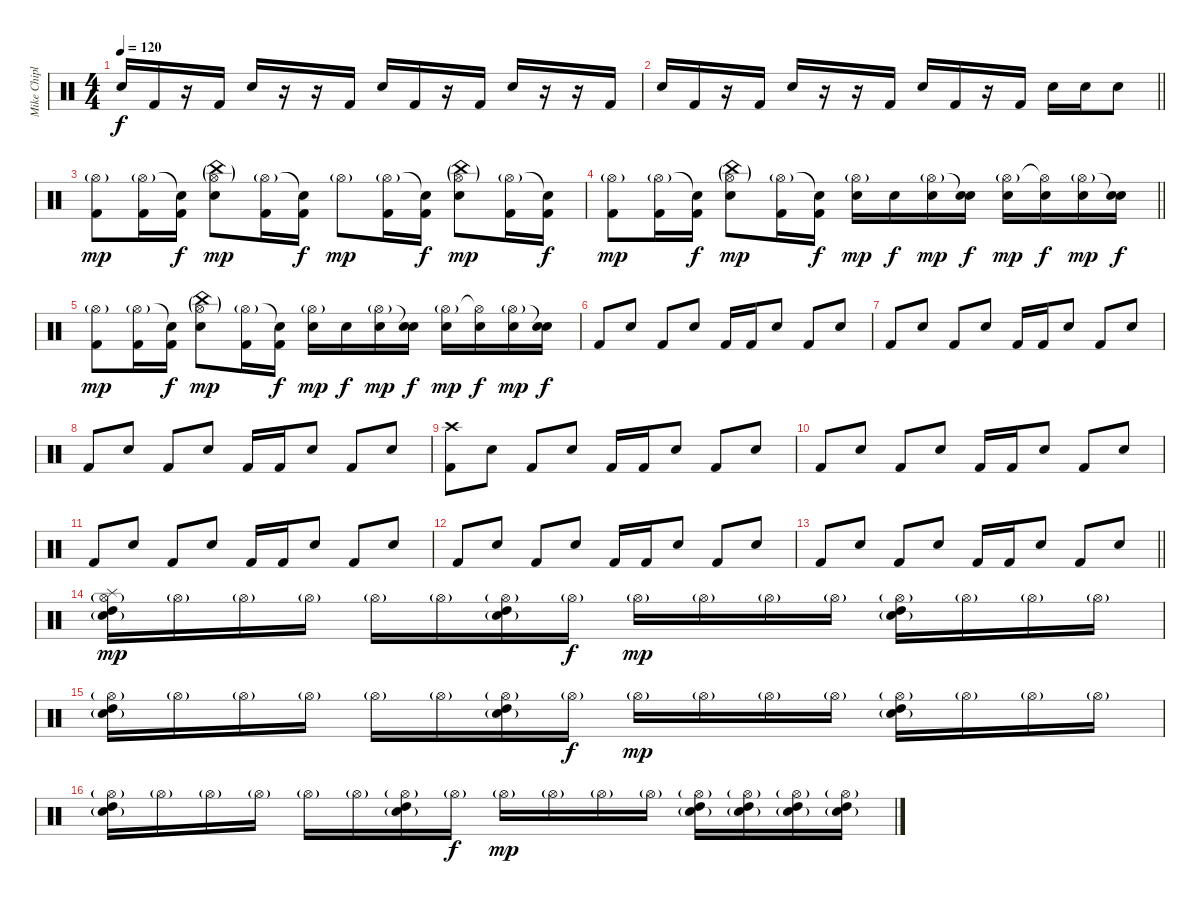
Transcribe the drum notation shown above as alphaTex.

\track ("Mike Chiplin" "Mike Chipl") {instrument percussion}
\staff {score}
\articulation defaults
\ts (4 4)
\tempo 120
\clef neutral
\ks c "Electric Snare (hit)".16{dy f} "Kick (hit) 2".16
r.16 "Kick (hit) 2".16 "Electric Snare (hit)".16 r.16 r.16 "Kick (hit) 2".16 "Electric Snare (hit)".16 "Kick (hit) 2".16 r.16 "Kick (hit) 2".16 "Electric Snare (hit)".16 r.16 r.16 "Kick (hit) 2".16 |
\barLineRight lightlight "Electric Snare (hit)".16 "Kick (hit) 2".16
r.16 "Kick (hit) 2".16 "Electric Snare (hit)".16 r.16 r.16 "Kick (hit) 2".16 "Electric Snare (hit)".16 "Kick (hit) 2".16 r.16 "Kick (hit) 2".16 "Electric Snare (hit)".16 "Electric Snare (hit)".16 "Electric Snare (hit)".8 |
("Hi-Hat (open)"{g} "Kick (hit) 2").8{dy mp} ("Hi-Hat (open)"{g} "Kick (hit) 2").16 ("Snare (hit)"{t} "Kick (hit) 2").16{dy f} ("China (hit)"{g} "Hi-Hat (open)"{g} "Electric Snare (hit)").8{dy mp} ("Hi-Hat (open)"{g} "Kick (hit) 2").16 ("Snare (hit)"{t} "Kick (hit) 2").16{dy f} "Hi-Hat (open)"{g}.8{dy mp} ("Hi-Hat (open)"{g} "Kick (hit) 2").16 ("Snare (hit)"{t} "Kick (hit) 2").16{dy f} ("China (hit)"{g} "Hi-Hat (open)"{g} "Electric Snare (hit)").8{dy mp} ("Hi-Hat (open)"{g} "Kick (hit) 2").16 ("Snare (hit)"{t} "Kick (hit) 2").16{dy f} |
\barLineRight lightlight
("Hi-Hat (open)"{g} "Kick (hit) 2").8{dy mp} ("Hi-Hat (open)"{g} "Kick (hit) 2").16 ("Snare (hit)"{t} "Kick (hit) 2").16{dy f} ("China (hit)"{g} "Hi-Hat (open)"{g} "Electric Snare (hit)").8{dy mp} ("Hi-Hat (open)"{g} "Kick (hit) 2").16 ("Snare (hit)"{t} "Kick (hit) 2").16{dy f} ("Hi-Hat (open)"{g} "Electric Snare (hit)").16{dy mp} "Electric Snare (hit)".16{dy f} ("Hi-Hat (open)"{g} "Electric Snare (hit)").16{dy mp} ("Snare (hit)"{t} "Electric Snare (hit)").16{dy f} ("Hi-Hat (open)"{g} "Electric Snare (hit)").16{dy mp} ("Hi-Hat (open)"{t} "Electric Snare (hit)").16{dy f} ("Hi-Hat (open)"{g} "Electric Snare (hit)").16{dy mp} ("Snare (hit)"{t} "Electric Snare (hit)").16{dy f} |
("Hi-Hat (open)"{g} "Kick (hit) 2").8{dy mp} ("Hi-Hat (open)"{g} "Kick (hit) 2").16 ("Snare (hit)"{t} "Kick (hit) 2").16{dy f} ("China (hit)"{g} "Hi-Hat (open)"{g} "Electric Snare (hit)").8{dy mp} ("Hi-Hat (open)"{g} "Kick (hit) 2").16 ("Snare (hit)"{t} "Kick (hit) 2").16{dy f} ("Hi-Hat (open)"{g} "Electric Snare (hit)").16{dy mp} "Electric Snare (hit)".16{dy f} ("Hi-Hat (open)"{g} "Electric Snare (hit)").16{dy mp} ("Snare (hit)"{t} "Electric Snare (hit)").16{dy f} ("Hi-Hat (open)"{g} "Electric Snare (hit)").16{dy mp} ("Hi-Hat (open)"{t} "Electric Snare (hit)").16{dy f} ("Hi-Hat (open)"{g} "Electric Snare (hit)").16{dy mp} ("Snare (hit)"{t} "Electric Snare (hit)").16{dy f} |
"Kick (hit) 2".8 "Electric Snare (hit)".8 "Kick (hit) 2".8 "Electric Snare (hit)".8 "Kick (hit) 2".16 "Kick (hit) 2".16 "Electric Snare (hit)".8 "Kick (hit) 2".8 "Electric Snare (hit)".8 |
"Kick (hit) 2".8 "Electric Snare (hit)".8 "Kick (hit) 2".8 "Electric Snare (hit)".8 "Kick (hit) 2".16 "Kick (hit) 2".16 "Electric Snare (hit)".8 "Kick (hit) 2".8 "Electric Snare (hit)".8 |
"Kick (hit) 2".8 "Electric Snare (hit)".8 "Kick (hit) 2".8 "Electric Snare (hit)".8 "Kick (hit) 2".16 "Kick (hit) 2".16 "Electric Snare (hit)".8 "Kick (hit) 2".8 "Electric Snare (hit)".8 |
("Crash high (hit)" "Kick (hit) 2").8 "Electric Snare (hit)".8 "Kick (hit) 2".8 "Electric Snare (hit)".8 "Kick (hit) 2".16 "Kick (hit) 2".16 "Electric Snare (hit)".8 "Kick (hit) 2".8 "Electric Snare (hit)".8 |
"Kick (hit) 2".8 "Electric Snare (hit)".8 "Kick (hit) 2".8 "Electric Snare (hit)".8 "Kick (hit) 2".16 "Kick (hit) 2".16 "Electric Snare (hit)".8 "Kick (hit) 2".8 "Electric Snare (hit)".8 |
"Kick (hit) 2".8 "Electric Snare (hit)".8 "Kick (hit) 2".8 "Electric Snare (hit)".8 "Kick (hit) 2".16 "Kick (hit) 2".16 "Electric Snare (hit)".8 "Kick (hit) 2".8 "Electric Snare (hit)".8 |
"Kick (hit) 2".8 "Electric Snare (hit)".8 "Kick (hit) 2".8 "Electric Snare (hit)".8 "Kick (hit) 2".16 "Kick (hit) 2".16 "Electric Snare (hit)".8 "Kick (hit) 2".8 "Electric Snare (hit)".8 |
\barLineRight lightlight "Kick (hit) 2".8 "Electric Snare (hit)".8 "Kick (hit) 2".8 "Electric Snare (hit)".8 "Kick (hit) 2".16 "Kick (hit) 2".16 "Electric Snare (hit)".8 "Kick (hit) 2".8 "Electric Snare (hit)".8
|
("Splash (hit)" "Hi-Hat (open)"{g} "High Tom (hit)" "Electric Snare (hit)"{g}).16{dy mp} "Hi-Hat (open)"{g}.16 "Hi-Hat (open)"{g}.16 "Hi-Hat (open)"{g}.16 "Hi-Hat (open)"{g}.16 "Hi-Hat (open)"{g}.16 ("Hi-Hat (open)"{g} "High Tom (hit)" "Electric Snare (hit)"{g}).16 "Hi-Hat (open)"{g}.16{dy f} "Hi-Hat (open)"{g}.16{dy mp} "Hi-Hat (open)"{g}.16 "Hi-Hat (open)"{g}.16 "Hi-Hat (open)"{g}.16 ("Hi-Hat (open)"{g} "High Tom (hit)" "Electric Snare (hit)"{g}).16 "Hi-Hat (open)"{g}.16 "Hi-Hat (open)"{g}.16 "Hi-Hat (open)"{g}.16 |
("Hi-Hat (open)"{g} "High Tom (hit)" "Electric Snare (hit)"{g}).16 "Hi-Hat (open)"{g}.16 "Hi-Hat (open)"{g}.16 "Hi-Hat (open)"{g}.16 "Hi-Hat (open)"{g}.16 "Hi-Hat (open)"{g}.16 ("Hi-Hat (open)"{g} "High Tom (hit)" "Electric Snare (hit)"{g}).16 "Hi-Hat (open)"{g}.16{dy f} "Hi-Hat (open)"{g}.16{dy mp} "Hi-Hat (open)"{g}.16 "Hi-Hat (open)"{g}.16 "Hi-Hat (open)"{g}.16 ("Hi-Hat (open)"{g} "High Tom (hit)" "Electric Snare (hit)"{g}).16 "Hi-Hat (open)"{g}.16 "Hi-Hat (open)"{g}.16 "Hi-Hat (open)"{g}.16 |
("Hi-Hat (open)"{g} "High Tom (hit)" "Electric Snare (hit)"{g}).16 "Hi-Hat (open)"{g}.16 "Hi-Hat (open)"{g}.16 "Hi-Hat (open)"{g}.16 "Hi-Hat (open)"{g}.16 "Hi-Hat (open)"{g}.16 ("Hi-Hat (open)"{g} "High Tom (hit)" "Electric Snare (hit)"{g}).16 "Hi-Hat (open)"{g}.16{dy f} "Hi-Hat (open)"{g}.16{dy mp} "Hi-Hat (open)"{g}.16 "Hi-Hat (open)"{g}.16 "Hi-Hat (open)"{g}.16 ("Hi-Hat (open)"{g} "High Tom (hit)" "Electric Snare (hit)"{g}).16 ("Hi-Hat (open)"{g} "High Tom (hit)" "Electric Snare (hit)"{g}).16 ("Hi-Hat (open)"{g} "High Tom (hit)" "Electric Snare (hit)"{g}).16 ("Hi-Hat (open)"{g} "High Tom (hit)" "Electric Snare (hit)"{g}).16
